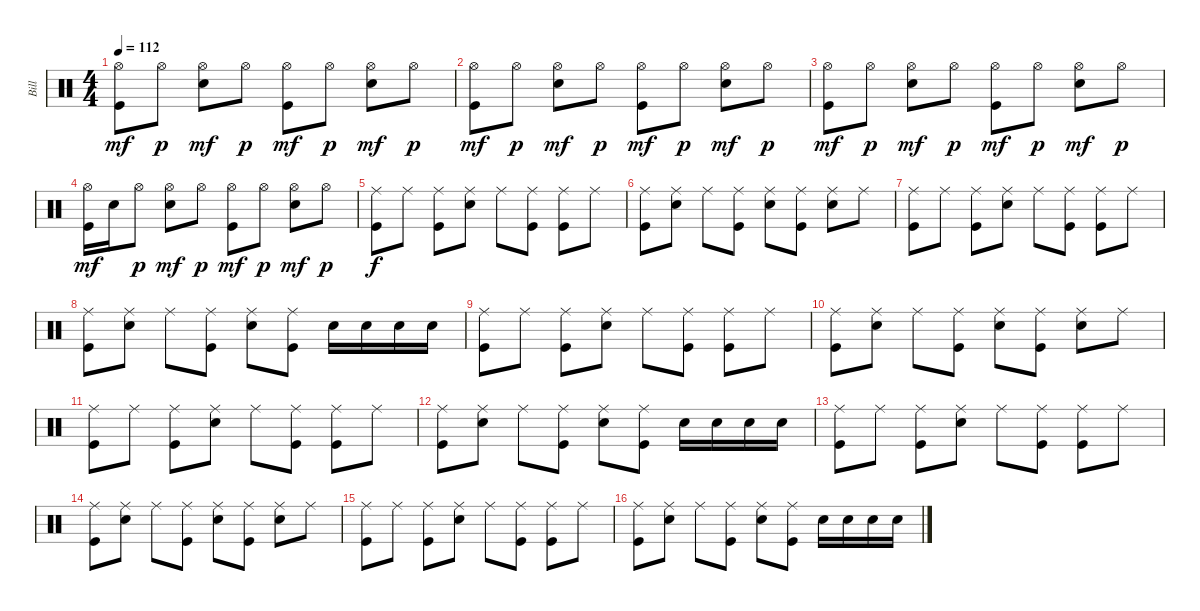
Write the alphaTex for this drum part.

\track ("Bill" "Bill") {instrument percussion}
\staff {score}
\articulation defaults
\ts (4 4)
\tempo 112
\clef neutral
\ks c
("Hi-Hat (open)" "Kick (hit)").8{dy mf} "Hi-Hat (open)".8{dy p} ("Hi-Hat (open)" "Snare (hit) 2").8{dy mf} "Hi-Hat (open)".8{dy p} ("Hi-Hat (open)" "Kick (hit)").8{dy mf} "Hi-Hat (open)".8{dy p} ("Hi-Hat (open)" "Snare (hit) 2").8{dy mf} "Hi-Hat (open)".8{dy p} |
("Hi-Hat (open)" "Kick (hit)").8{dy mf} "Hi-Hat (open)".8{dy p} ("Hi-Hat (open)" "Snare (hit) 2").8{dy mf} "Hi-Hat (open)".8{dy p} ("Hi-Hat (open)" "Kick (hit)").8{dy mf} "Hi-Hat (open)".8{dy p} ("Hi-Hat (open)" "Snare (hit) 2").8{dy mf} "Hi-Hat (open)".8{dy p} |
("Hi-Hat (open)" "Kick (hit)").8{dy mf} "Hi-Hat (open)".8{dy p} ("Hi-Hat (open)" "Snare (hit) 2").8{dy mf} "Hi-Hat (open)".8{dy p} ("Hi-Hat (open)" "Kick (hit)").8{dy mf} "Hi-Hat (open)".8{dy p} ("Hi-Hat (open)" "Snare (hit) 2").8{dy mf} "Hi-Hat (open)".8{dy p} |
("Hi-Hat (open)" "Kick (hit)").16{dy mf} "Snare (hit) 2".16 "Hi-Hat (open)".8{dy p} ("Hi-Hat (open)" "Snare (hit) 2").8{dy mf} "Hi-Hat (open)".8{dy p} ("Hi-Hat (open)" "Kick (hit)").8{dy mf} "Hi-Hat (open)".8{dy p} ("Hi-Hat (open)" "Snare (hit) 2").8{dy mf} "Hi-Hat (open)".8{dy p} |
("Ride (middle)" "Kick (hit)").8{dy f} "Ride (middle)".8 ("Ride (middle)" "Kick (hit)").8 ("Ride (middle)" "Snare (hit) 2").8 "Ride (middle)".8 ("Ride (middle)" "Kick (hit)").8 ("Ride (middle)" "Kick (hit)").8 "Ride (middle)".8 |
("Ride (middle)" "Kick (hit)").8 ("Ride (middle)" "Snare (hit) 2").8 "Ride (middle)".8 ("Ride (middle)" "Kick (hit)").8 ("Ride (middle)" "Snare (hit) 2").8 ("Ride (middle)" "Kick (hit)").8 ("Ride (middle)" "Snare (hit) 2").8 "Ride (middle)".8 |
("Ride (middle)" "Kick (hit)").8 "Ride (middle)".8 ("Ride (middle)" "Kick (hit)").8 ("Ride (middle)" "Snare (hit) 2").8 "Ride (middle)".8 ("Ride (middle)" "Kick (hit)").8 ("Ride (middle)" "Kick (hit)").8 "Ride (middle)".8 |
("Ride (middle)" "Kick (hit)").8 ("Ride (middle)" "Snare (hit) 2").8 "Ride (middle)".8 ("Ride (middle)" "Kick (hit)").8 ("Ride (middle)" "Snare (hit) 2").8 ("Ride (middle)" "Kick (hit)").8 "Snare (hit) 2".16 "Snare (hit) 2".16 "Snare (hit) 2".16 "Snare (hit) 2".16 |
("Ride (middle)" "Kick (hit)").8 "Ride (middle)".8 ("Ride (middle)" "Kick (hit)").8 ("Ride (middle)" "Snare (hit) 2").8 "Ride (middle)".8 ("Ride (middle)" "Kick (hit)").8 ("Ride (middle)" "Kick (hit)").8 "Ride (middle)".8 |
("Ride (middle)" "Kick (hit)").8 ("Ride (middle)" "Snare (hit) 2").8 "Ride (middle)".8 ("Ride (middle)" "Kick (hit)").8 ("Ride (middle)" "Snare (hit) 2").8 ("Ride (middle)" "Kick (hit)").8 ("Ride (middle)" "Snare (hit) 2").8 "Ride (middle)".8 |
("Ride (middle)" "Kick (hit)").8 "Ride (middle)".8 ("Ride (middle)" "Kick (hit)").8 ("Ride (middle)" "Snare (hit) 2").8 "Ride (middle)".8 ("Ride (middle)" "Kick (hit)").8 ("Ride (middle)" "Kick (hit)").8 "Ride (middle)".8 |
("Ride (middle)" "Kick (hit)").8 ("Ride (middle)" "Snare (hit) 2").8 "Ride (middle)".8 ("Ride (middle)" "Kick (hit)").8 ("Ride (middle)" "Snare (hit) 2").8 ("Ride (middle)" "Kick (hit)").8 "Snare (hit) 2".16 "Snare (hit) 2".16 "Snare (hit) 2".16 "Snare (hit) 2".16 |
("Ride (middle)" "Kick (hit)").8 "Ride (middle)".8 ("Ride (middle)" "Kick (hit)").8 ("Ride (middle)" "Snare (hit) 2").8 "Ride (middle)".8 ("Ride (middle)" "Kick (hit)").8 ("Ride (middle)" "Kick (hit)").8 "Ride (middle)".8 |
("Ride (middle)" "Kick (hit)").8 ("Ride (middle)" "Snare (hit) 2").8 "Ride (middle)".8 ("Ride (middle)" "Kick (hit)").8 ("Ride (middle)" "Snare (hit) 2").8 ("Ride (middle)" "Kick (hit)").8 ("Ride (middle)" "Snare (hit) 2").8 "Ride (middle)".8 |
("Ride (middle)" "Kick (hit)").8 "Ride (middle)".8 ("Ride (middle)" "Kick (hit)").8 ("Ride (middle)" "Snare (hit) 2").8 "Ride (middle)".8 ("Ride (middle)" "Kick (hit)").8 ("Ride (middle)" "Kick (hit)").8 "Ride (middle)".8 |
("Ride (middle)" "Kick (hit)").8 ("Ride (middle)" "Snare (hit) 2").8 "Ride (middle)".8 ("Ride (middle)" "Kick (hit)").8 ("Ride (middle)" "Snare (hit) 2").8 ("Ride (middle)" "Kick (hit)").8 "Snare (hit) 2".16 "Snare (hit) 2".16 "Snare (hit) 2".16 "Snare (hit) 2".16
